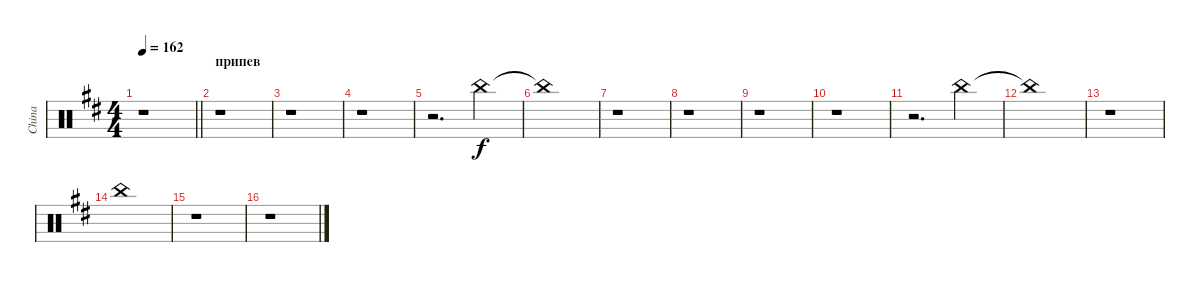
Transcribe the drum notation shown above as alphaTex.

\track ("China" "China") {instrument percussion}
\staff {score}
\articulation defaults
\ts (4 4)
\tempo 162
\clef neutral
\barLineRight lightlight
\ks bminor
r.1{dy f} |
\section ("" "припев")
r.1 |
r.1 |
r.1 |
r.2{d} "China (hit)".4 |
"China (hit)"{t}.1 |
r.1 |
r.1 |
r.1 |
r.1 |
r.2{d} "China (hit)".4 |
"China (hit)"{t}.1 |
r.1 |
"China (hit)".1 |
r.1 |
r.1
